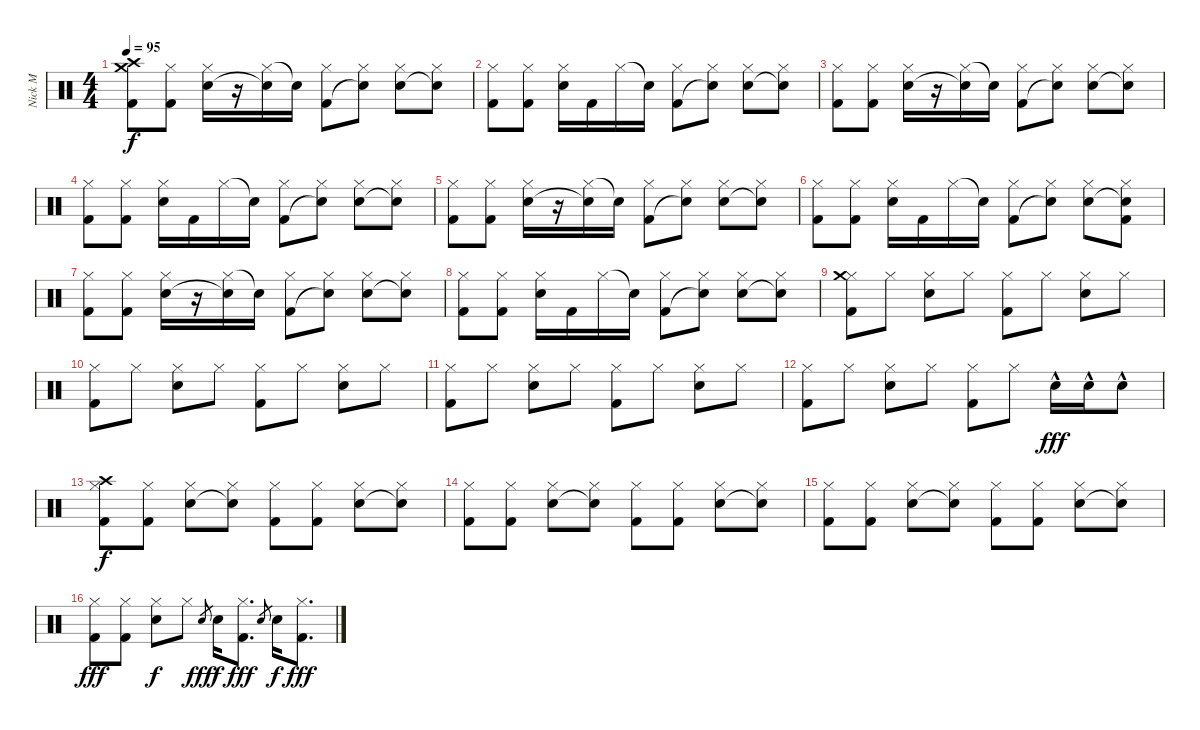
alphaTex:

\track ("Nick M" "Nick M") {instrument percussion}
\staff {score}
\articulation defaults
\ts (4 4)
\tempo 95
\clef neutral
\ks c
("Crash medium (hit)" "Crash high (hit)" "Kick (hit) 2").8{dy f} ("Hi-Hat (closed)" "Kick (hit) 2").8 ("Hi-Hat (closed)" "Snare (hit) 2").16 r.16 ("Hi-Hat (closed)" "Snare (hit)"{t}).16 "Snare (hit)"{t}.16 ("Hi-Hat (closed)" "Kick (hit) 2").8 ("Hi-Hat (closed)" "Snare (hit)"{t}).8 ("Hi-Hat (closed)" "Snare (hit) 2").8 ("Hi-Hat (closed)" "Snare (hit)"{t}).8 |
("Hi-Hat (closed)" "Kick (hit) 2").8 ("Hi-Hat (closed)" "Kick (hit) 2").8 ("Hi-Hat (closed)" "Snare (hit) 2").16 "Kick (hit) 2".16 "Hi-Hat (closed)".16 "Snare (hit)"{t}.16 ("Hi-Hat (closed)" "Kick (hit) 2").8 ("Hi-Hat (closed)" "Snare (hit)"{t}).8 ("Hi-Hat (closed)" "Snare (hit) 2").8 ("Hi-Hat (closed)" "Snare (hit)"{t}).8 |
("Hi-Hat (closed)" "Kick (hit) 2").8 ("Hi-Hat (closed)" "Kick (hit) 2").8 ("Hi-Hat (closed)" "Snare (hit) 2").16 r.16 ("Hi-Hat (closed)" "Snare (hit)"{t}).16 "Snare (hit)"{t}.16 ("Hi-Hat (closed)" "Kick (hit) 2").8 ("Hi-Hat (closed)" "Snare (hit)"{t}).8 ("Hi-Hat (closed)" "Snare (hit) 2").8 ("Hi-Hat (closed)" "Snare (hit)"{t}).8 |
("Hi-Hat (closed)" "Kick (hit) 2").8 ("Hi-Hat (closed)" "Kick (hit) 2").8 ("Hi-Hat (closed)" "Snare (hit) 2").16 "Kick (hit) 2".16 "Hi-Hat (closed)".16 "Snare (hit)"{t}.16 ("Hi-Hat (closed)" "Kick (hit) 2").8 ("Hi-Hat (closed)" "Snare (hit)"{t}).8 ("Hi-Hat (closed)" "Snare (hit) 2").8 ("Hi-Hat (closed)" "Snare (hit)"{t}).8 |
("Hi-Hat (closed)" "Kick (hit) 2").8 ("Hi-Hat (closed)" "Kick (hit) 2").8 ("Hi-Hat (closed)" "Snare (hit) 2").16 r.16 ("Hi-Hat (closed)" "Snare (hit)"{t}).16 "Snare (hit)"{t}.16 ("Hi-Hat (closed)" "Kick (hit) 2").8 ("Hi-Hat (closed)" "Snare (hit)"{t}).8 ("Hi-Hat (closed)" "Snare (hit) 2").8 ("Hi-Hat (closed)" "Snare (hit)"{t}).8 |
("Hi-Hat (closed)" "Kick (hit) 2").8 ("Hi-Hat (closed)" "Kick (hit) 2").8 ("Hi-Hat (closed)" "Snare (hit) 2").16 "Kick (hit) 2".16 "Hi-Hat (closed)".16 "Snare (hit)"{t}.16 ("Hi-Hat (closed)" "Kick (hit) 2").8 ("Hi-Hat (closed)" "Snare (hit)"{t}).8 ("Hi-Hat (closed)" "Snare (hit) 2").8 ("Hi-Hat (closed)" "Snare (hit)"{t} "Kick (hit) 2").8 |
("Hi-Hat (closed)" "Kick (hit) 2").8 ("Hi-Hat (closed)" "Kick (hit) 2").8 ("Hi-Hat (closed)" "Snare (hit) 2").16 r.16 ("Hi-Hat (closed)" "Snare (hit)"{t}).16 "Snare (hit)"{t}.16 ("Hi-Hat (closed)" "Kick (hit) 2").8 ("Hi-Hat (closed)" "Snare (hit)"{t}).8 ("Hi-Hat (closed)" "Snare (hit) 2").8 ("Hi-Hat (closed)" "Snare (hit)"{t}).8 |
("Hi-Hat (closed)" "Kick (hit) 2").8 ("Hi-Hat (closed)" "Kick (hit) 2").8 ("Hi-Hat (closed)" "Snare (hit) 2").16 "Kick (hit) 2".16 "Hi-Hat (closed)".16 "Snare (hit)"{t}.16 ("Hi-Hat (closed)" "Kick (hit) 2").8 ("Hi-Hat (closed)" "Snare (hit)"{t}).8 ("Hi-Hat (closed)" "Snare (hit) 2").8 ("Hi-Hat (closed)" "Snare (hit)"{t}).8 |
("Hi-Hat (closed)" "Crash medium (hit)" "Kick (hit) 2").8 "Hi-Hat (closed)".8 ("Hi-Hat (closed)" "Snare (hit) 2").8 "Hi-Hat (closed)".8 ("Hi-Hat (closed)" "Kick (hit) 2").8 "Hi-Hat (closed)".8 ("Hi-Hat (closed)" "Snare (hit) 2").8 "Hi-Hat (closed)".8 |
("Hi-Hat (closed)" "Kick (hit) 2").8 "Hi-Hat (closed)".8 ("Hi-Hat (closed)" "Snare (hit) 2").8 "Hi-Hat (closed)".8 ("Hi-Hat (closed)" "Kick (hit) 2").8 "Hi-Hat (closed)".8 ("Hi-Hat (closed)" "Snare (hit) 2").8 "Hi-Hat (closed)".8 |
("Hi-Hat (closed)" "Kick (hit) 2").8 "Hi-Hat (closed)".8 ("Hi-Hat (closed)" "Snare (hit) 2").8 "Hi-Hat (closed)".8 ("Hi-Hat (closed)" "Kick (hit) 2").8 "Hi-Hat (closed)".8 ("Hi-Hat (closed)" "Snare (hit) 2").8 "Hi-Hat (closed)".8 |
("Hi-Hat (closed)" "Kick (hit) 2").8 "Hi-Hat (closed)".8 ("Hi-Hat (closed)" "Snare (hit) 2").8 "Hi-Hat (closed)".8 ("Hi-Hat (closed)" "Kick (hit) 2").8 "Hi-Hat (closed)".8 "Snare (hit) 2"{hac}.16{dy fff} "Snare (hit) 2"{hac}.16 "Snare (hit) 2"{hac}.8 |
("Hi-Hat (closed)" "Crash high (hit)" "Kick (hit) 2").8{dy f} ("Hi-Hat (closed)" "Kick (hit) 2").8 ("Hi-Hat (closed)" "Snare (hit) 2").8 ("Hi-Hat (closed)" "Snare (hit)"{t}).8 ("Hi-Hat (closed)" "Kick (hit) 2").8 ("Hi-Hat (closed)" "Kick (hit) 2").8 ("Hi-Hat (closed)" "Snare (hit) 2").8 ("Hi-Hat (closed)" "Snare (hit)"{t}).8 |
("Hi-Hat (closed)" "Kick (hit) 2").8 ("Hi-Hat (closed)" "Kick (hit) 2").8 ("Hi-Hat (closed)" "Snare (hit) 2").8 ("Hi-Hat (closed)" "Snare (hit)"{t}).8 ("Hi-Hat (closed)" "Kick (hit) 2").8 ("Hi-Hat (closed)" "Kick (hit) 2").8 ("Hi-Hat (closed)" "Snare (hit) 2").8 ("Hi-Hat (closed)" "Snare (hit)"{t}).8 |
("Hi-Hat (closed)" "Kick (hit) 2").8 ("Hi-Hat (closed)" "Kick (hit) 2").8 ("Hi-Hat (closed)" "Snare (hit) 2").8 ("Hi-Hat (closed)" "Snare (hit)"{t}).8 ("Hi-Hat (closed)" "Kick (hit) 2").8 ("Hi-Hat (closed)" "Kick (hit) 2").8 ("Hi-Hat (closed)" "Snare (hit) 2").8 ("Hi-Hat (closed)" "Snare (hit)"{t}).8 |
("Hi-Hat (closed)" "Kick (hit) 2").8{dy fff} ("Hi-Hat (closed)" "Kick (hit) 2").8 ("Hi-Hat (closed)" "Snare (hit) 2").8{dy f} "Hi-Hat (closed)".8 "Snare (hit) 2".8{gr dy fff} "Snare (hit) 2".16{dy f} ("Hi-Hat (closed)" "Kick (hit) 2").8{d dy fff} "Snare (hit) 2".8{gr} "Snare (hit) 2".16{dy f} ("Hi-Hat (closed)" "Kick (hit) 2").8{d dy fff}
